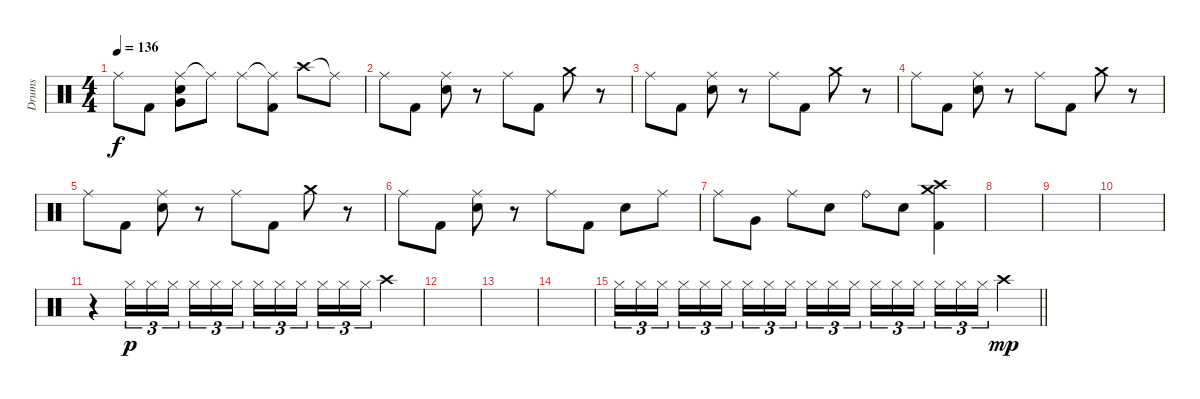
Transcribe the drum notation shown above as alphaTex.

\track ("Drums" "Drums") {instrument percussion}
\staff {score}
\articulation defaults
\ts (4 4)
\tempo 136
\clef neutral
\ks c "Ride (middle)".8{dy f} "Kick (hit) 2".8
("Ride (middle)" "Very Low Tom (hit)" "Electric Snare (hit)").8 "Ride (middle)"{t}.8 "Ride (middle)".8 ("Ride (middle)"{t} "Kick (hit) 2").8 "Crash high (hit)".8 "Ride (middle)"{t}.8 |
"Ride (middle)".8 "Kick (hit) 2".8 ("Ride (middle)" "Electric Snare (hit)").8 r.8 "Ride (middle)".8 "Kick (hit) 2".8 "Crash medium (hit)".8 r.8 |
"Ride (middle)".8 "Kick (hit) 2".8 ("Ride (middle)" "Electric Snare (hit)").8 r.8 "Ride (middle)".8 "Kick (hit) 2".8 "Crash medium (hit)".8 r.8 |
"Ride (middle)".8 "Kick (hit) 2".8 ("Ride (middle)" "Electric Snare (hit)").8 r.8 "Ride (middle)".8 "Kick (hit) 2".8 "Crash medium (hit)".8 r.8 |
"Ride (middle)".8 "Kick (hit) 2".8 ("Ride (middle)" "Electric Snare (hit)").8 r.8 "Ride (middle)".8 "Kick (hit) 2".8 "Crash medium (hit)".8 r.8 |
"Ride (middle)".8 "Kick (hit) 2".8 ("Ride (middle)" "Electric Snare (hit)").8 r.8 "Ride (middle)".8 "Kick (hit) 2".8 "Electric Snare (hit)".8 "Ride (middle)".8 |
"Ride (middle)".8 "Very Low Tom (hit)".8 "Ride (middle)".8 "Electric Snare (hit)".8 "Ride (bell)".8 "Electric Snare (hit)".8 ("Crash high (hit)" "Crash medium (hit)" "Kick (hit) 2").4 |
|
|
|
r.4 "Hi-Hat (closed)".16{tu (3 2) dy p} "Hi-Hat (closed)".16{tu (3 2)} "Hi-Hat (closed)".16{tu (3 2) beam splitsecondary} "Hi-Hat (closed)".16{tu (3 2)} "Hi-Hat (closed)".16{tu (3 2)} "Hi-Hat (closed)".16{tu (3 2)} "Hi-Hat (closed)".16{tu (3 2)} "Hi-Hat (closed)".16{tu (3 2)} "Hi-Hat (closed)".16{tu (3 2) beam splitsecondary} "Hi-Hat (closed)".16{tu (3 2)} "Hi-Hat (closed)".16{tu (3 2)} "Hi-Hat (closed)".16{tu (3 2)} "Crash high (hit)".4 |
|
|
|
\barLineRight lightlight "Hi-Hat (closed)".16{tu (3 2)} "Hi-Hat (closed)".16{tu (3 2)} "Hi-Hat (closed)".16{tu (3 2) beam splitsecondary} "Hi-Hat (closed)".16{tu (3 2)} "Hi-Hat (closed)".16{tu (3 2)} "Hi-Hat (closed)".16{tu (3 2)} "Hi-Hat (closed)".16{tu (3 2)} "Hi-Hat (closed)".16{tu (3 2)} "Hi-Hat (closed)".16{tu (3 2) beam splitsecondary} "Hi-Hat (closed)".16{tu (3 2)} "Hi-Hat (closed)".16{tu (3 2)} "Hi-Hat (closed)".16{tu (3 2)} "Hi-Hat (closed)".16{tu (3 2)} "Hi-Hat (closed)".16{tu (3 2)} "Hi-Hat (closed)".16{tu (3 2) beam splitsecondary} "Hi-Hat (closed)".16{tu (3 2)} "Hi-Hat (closed)".16{tu (3 2)} "Hi-Hat (closed)".16{tu (3 2)} "Crash high (hit)".4{dy mp}
